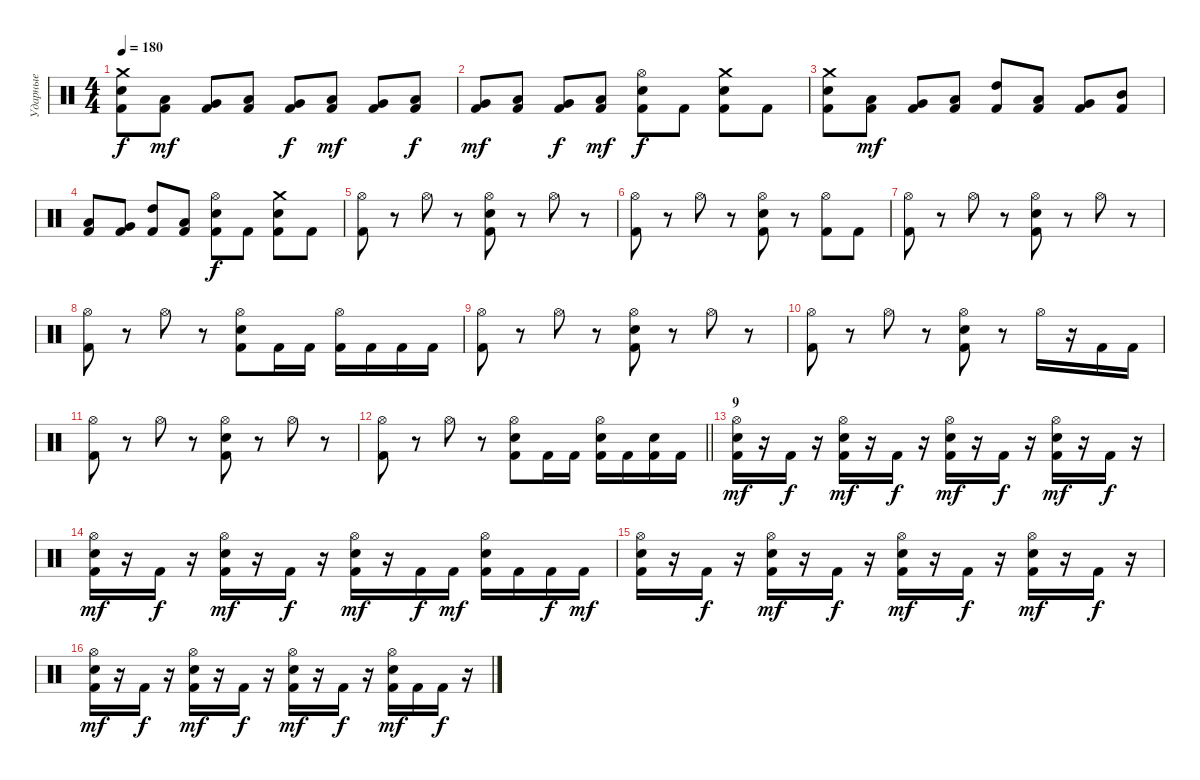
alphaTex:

\track ("Ударные" "Ударные") {instrument percussion}
\staff {score}
\articulation defaults
\ts (4 4)
\tempo 180
\clef neutral
\ks c
("Crash medium (hit)" "Snare (hit) 2" "Kick (hit) 2").8{dy f} ("Low Tom (hit)" "Kick (hit) 2").8{dy mf} ("Very Low Tom (hit)" "Kick (hit) 2").8 ("Low Tom (hit)" "Kick (hit) 2").8 ("Very Low Tom (hit)" "Kick (hit) 2").8{dy f} ("Low Tom (hit)" "Kick (hit) 2").8{dy mf} ("Very Low Tom (hit)" "Kick (hit) 2").8 ("Low Tom (hit)" "Kick (hit) 2").8{dy f} |
("Very Low Tom (hit)" "Kick (hit) 2").8{dy mf} ("Low Tom (hit)" "Kick (hit) 2").8 ("Very Low Tom (hit)" "Kick (hit) 2").8{dy f} ("Low Tom (hit)" "Kick (hit) 2").8{dy mf} ("Hi-Hat (open)" "Snare (hit) 2" "Kick (hit) 2").8{dy f} "Kick (hit) 2".8 ("Crash medium (hit)" "Snare (hit) 2" "Kick (hit) 2").8 "Kick (hit) 2".8 |
("Crash medium (hit)" "Snare (hit) 2" "Kick (hit) 2").8 ("Low Tom (hit)" "Kick (hit) 2").8{dy mf} ("Very Low Tom (hit)" "Kick (hit) 2").8 ("Low Tom (hit)" "Kick (hit) 2").8 ("High Tom (hit)" "Kick (hit) 2").8 ("Low Tom (hit)" "Kick (hit) 2").8 ("Very Low Tom (hit)" "Kick (hit) 2").8 ("Mid Tom (hit)" "Kick (hit) 2").8 |
("Low Tom (hit)" "Kick (hit) 2").8 ("Very Low Tom (hit)" "Kick (hit) 2").8 ("High Tom (hit)" "Kick (hit) 2").8 ("Low Tom (hit)" "Kick (hit) 2").8 ("Hi-Hat (open)" "Snare (hit) 2" "Kick (hit) 2").8{dy f} "Kick (hit) 2".8 ("Crash medium (hit)" "Snare (hit) 2" "Kick (hit) 2").8 "Kick (hit) 2".8 |
("Hi-Hat (open)" "Kick (hit) 2").8 r.8 "Hi-Hat (open)".8 r.8 ("Hi-Hat (open)" "Snare (hit) 2" "Kick (hit) 2").8 r.8 "Hi-Hat (open)".8 r.8 |
("Hi-Hat (open)" "Kick (hit) 2").8 r.8 "Hi-Hat (open)".8 r.8 ("Hi-Hat (open)" "Snare (hit) 2" "Kick (hit) 2").8 r.8 ("Hi-Hat (open)" "Kick (hit) 2").8 "Kick (hit) 2".8 |
("Hi-Hat (open)" "Kick (hit) 2").8 r.8 "Hi-Hat (open)".8 r.8 ("Hi-Hat (open)" "Snare (hit) 2" "Kick (hit) 2").8 r.8 "Hi-Hat (open)".8 r.8 |
("Hi-Hat (open)" "Kick (hit) 2").8 r.8 "Hi-Hat (open)".8 r.8 ("Hi-Hat (open)" "Snare (hit) 2" "Kick (hit) 2").8 "Kick (hit) 2".16 "Kick (hit) 2".16 ("Hi-Hat (open)" "Kick (hit) 2").16 "Kick (hit) 2".16 "Kick (hit) 2".16 "Kick (hit) 2".16 |
("Hi-Hat (open)" "Kick (hit) 2").8 r.8 "Hi-Hat (open)".8 r.8 ("Hi-Hat (open)" "Snare (hit) 2" "Kick (hit) 2").8 r.8 "Hi-Hat (open)".8 r.8 |
("Hi-Hat (open)" "Kick (hit) 2").8 r.8 "Hi-Hat (open)".8 r.8 ("Hi-Hat (open)" "Snare (hit) 2" "Kick (hit) 2").8 r.8 "Hi-Hat (open)".16 r.16 "Kick (hit) 2".16 "Kick (hit) 2".16 |
("Hi-Hat (open)" "Kick (hit) 2").8 r.8 "Hi-Hat (open)".8 r.8 ("Hi-Hat (open)" "Snare (hit) 2" "Kick (hit) 2").8 r.8 "Hi-Hat (open)".8 r.8 |
\barLineRight lightlight
("Hi-Hat (open)" "Kick (hit) 2").8 r.8 "Hi-Hat (open)".8 r.8 ("Hi-Hat (open)" "Snare (hit) 2" "Kick (hit) 2").8 "Kick (hit) 2".16 "Kick (hit) 2".16 ("Hi-Hat (open)" "Snare (hit) 2" "Kick (hit) 2").16 "Kick (hit) 2".16 ("Snare (hit) 2" "Kick (hit) 2").16 "Kick (hit) 2".16 |
\section ("" "9")
("Hi-Hat (open)" "Snare (hit) 2" "Kick (hit) 2").16{dy mf} r.16 "Kick (hit) 2".16{dy f} r.16 ("Hi-Hat (open)" "Snare (hit) 2" "Kick (hit) 2").16{dy mf} r.16 "Kick (hit) 2".16{dy f} r.16 ("Hi-Hat (open)" "Snare (hit) 2" "Kick (hit) 2").16{dy mf} r.16 "Kick (hit) 2".16{dy f} r.16 ("Hi-Hat (open)" "Snare (hit) 2" "Kick (hit) 2").16{dy mf} r.16 "Kick (hit) 2".16{dy f} r.16 |
("Hi-Hat (open)" "Snare (hit) 2" "Kick (hit) 2").16{dy mf} r.16 "Kick (hit) 2".16{dy f} r.16 ("Hi-Hat (open)" "Snare (hit) 2" "Kick (hit) 2").16{dy mf} r.16 "Kick (hit) 2".16{dy f} r.16 ("Hi-Hat (open)" "Snare (hit) 2" "Kick (hit) 2").16{dy mf} r.16 "Kick (hit) 2".16{dy f} "Kick (hit) 2".16{dy mf} ("Hi-Hat (open)" "Snare (hit) 2" "Kick (hit) 2").16 "Kick (hit) 2".16 "Kick (hit) 2".16{dy f} "Kick (hit) 2".16{dy mf} |
("Hi-Hat (open)" "Snare (hit) 2" "Kick (hit) 2").16 r.16 "Kick (hit) 2".16{dy f} r.16 ("Hi-Hat (open)" "Snare (hit) 2" "Kick (hit) 2").16{dy mf} r.16 "Kick (hit) 2".16{dy f} r.16 ("Hi-Hat (open)" "Snare (hit) 2" "Kick (hit) 2").16{dy mf} r.16 "Kick (hit) 2".16{dy f} r.16 ("Hi-Hat (open)" "Snare (hit) 2" "Kick (hit) 2").16{dy mf} r.16 "Kick (hit) 2".16{dy f} r.16 |
("Hi-Hat (open)" "Snare (hit) 2" "Kick (hit) 2").16{dy mf} r.16 "Kick (hit) 2".16{dy f} r.16 ("Hi-Hat (open)" "Snare (hit) 2" "Kick (hit) 2").16{dy mf} r.16 "Kick (hit) 2".16{dy f} r.16 ("Hi-Hat (open)" "Snare (hit) 2" "Kick (hit) 2").16{dy mf} r.16 "Kick (hit) 2".16{dy f} r.16 ("Hi-Hat (open)" "Snare (hit) 2" "Kick (hit) 2").16{dy mf} "Kick (hit) 2".16 "Kick (hit) 2".16{dy f} r.16
